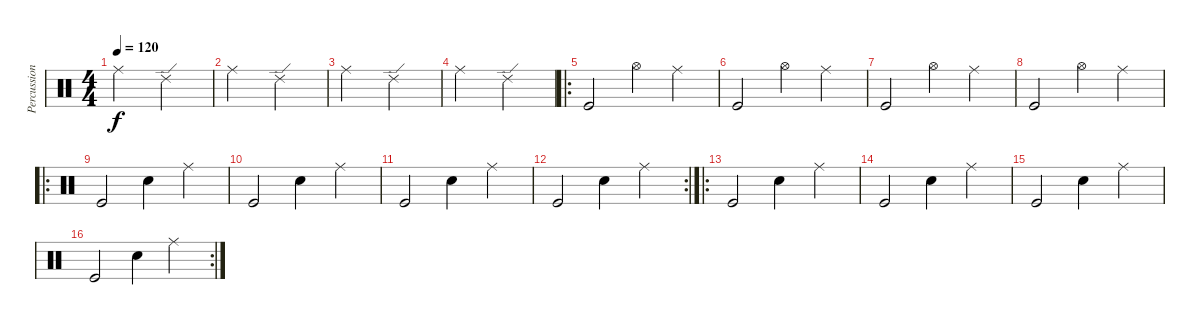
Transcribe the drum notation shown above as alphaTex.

\track ("Percussion" "Percussion") {instrument percussion}
\staff {score}
\articulation defaults
\ts (4 4)
\tempo 120
\clef neutral
\ks c "Ride (middle)".2{dy f} "Ride (edge) 2".2
|
"Ride (middle)".2 "Ride (edge) 2".2 |
"Ride (middle)".2 "Ride (edge) 2".2 |
"Ride (middle)".2 "Ride (edge) 2".2 |
\ro "Kick (hit)".2 "Hi-Hat (open)".4 "Ride (middle)".4
|
"Kick (hit)".2 "Hi-Hat (open)".4 "Ride (middle)".4 |
"Kick (hit)".2 "Hi-Hat (open)".4 "Ride (middle)".4 |
"Kick (hit)".2 "Hi-Hat (open)".4 "Ride (middle)".4 |
\ro "Kick (hit)".2 "Snare (hit) 2".4 "Ride (middle)".4
|
"Kick (hit)".2 "Snare (hit) 2".4 "Ride (middle)".4 |
"Kick (hit)".2 "Snare (hit) 2".4 "Ride (middle)".4 |
\rc 2 "Kick (hit)".2 "Snare (hit) 2".4 "Ride (middle)".4
|
\ro "Kick (hit)".2 "Snare (hit) 2".4 "Ride (middle)".4
|
"Kick (hit)".2 "Snare (hit) 2".4 "Ride (middle)".4 |
"Kick (hit)".2 "Snare (hit) 2".4 "Ride (middle)".4 |
\rc 2 "Kick (hit)".2 "Snare (hit) 2".4 "Ride (middle)".4
